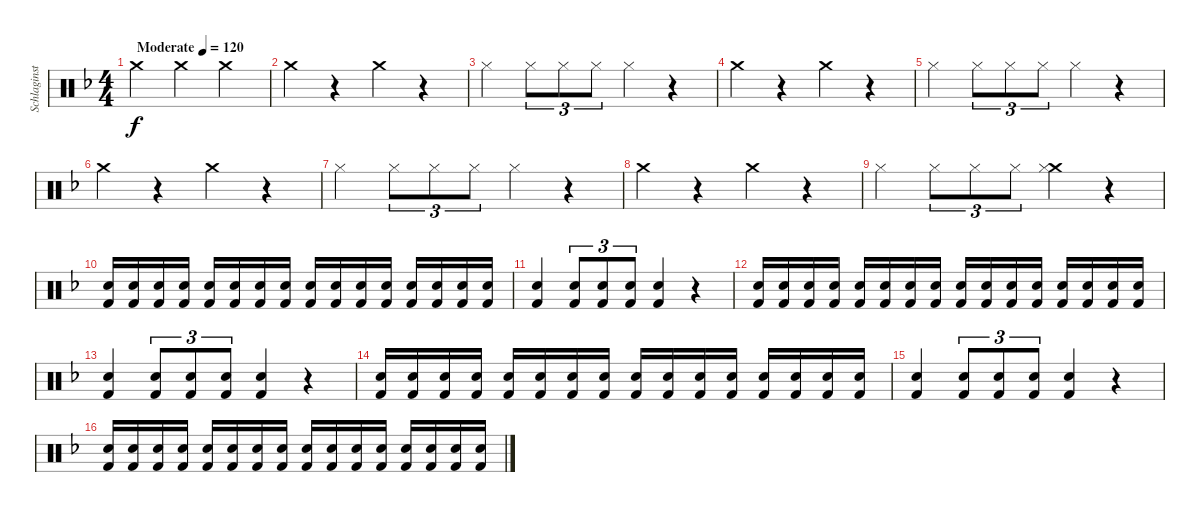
\track ("Schlaginstrumente - Auswahl" "Schlaginst") {instrument percussion}
\staff {score}
\articulation defaults
\ts (4 4)
\tempo (120 "Moderate")
\clef neutral
\ks f "Crash medium (hit)".4{dy f} "Crash medium (hit)".4 "Crash medium (hit)".4
|
"Crash medium (hit)".4 r.4 "Crash medium (hit)".4 r.4 |
"Hi-Hat (closed)".4 "Hi-Hat (closed)".8{tu (3 2)} "Hi-Hat (closed)".8{tu (3 2)} "Hi-Hat (closed)".8{tu (3 2)} "Hi-Hat (closed)".4 r.4 |
"Crash medium (hit)".4 r.4 "Crash medium (hit)".4 r.4 |
"Hi-Hat (closed)".4 "Hi-Hat (closed)".8{tu (3 2)} "Hi-Hat (closed)".8{tu (3 2)} "Hi-Hat (closed)".8{tu (3 2)} "Hi-Hat (closed)".4 r.4 |
"Crash medium (hit)".4 r.4 "Crash medium (hit)".4 r.4 |
"Hi-Hat (closed)".4 "Hi-Hat (closed)".8{tu (3 2)} "Hi-Hat (closed)".8{tu (3 2)} "Hi-Hat (closed)".8{tu (3 2)} "Hi-Hat (closed)".4 r.4 |
"Crash medium (hit)".4 r.4 "Crash medium (hit)".4 r.4 |
"Hi-Hat (closed)".4 "Hi-Hat (closed)".8{tu (3 2)} "Hi-Hat (closed)".8{tu (3 2)} "Hi-Hat (closed)".8{tu (3 2)} ("Crash medium (hit)" "Hi-Hat (closed)").4 r.4 |
("Electric Snare (hit)" "Kick (hit) 2").16 ("Electric Snare (hit)" "Kick (hit) 2").16 ("Electric Snare (hit)" "Kick (hit) 2").16 ("Electric Snare (hit)" "Kick (hit) 2").16 ("Electric Snare (hit)" "Kick (hit) 2").16 ("Electric Snare (hit)" "Kick (hit) 2").16 ("Electric Snare (hit)" "Kick (hit) 2").16 ("Electric Snare (hit)" "Kick (hit) 2").16 ("Electric Snare (hit)" "Kick (hit) 2").16 ("Electric Snare (hit)" "Kick (hit) 2").16 ("Electric Snare (hit)" "Kick (hit) 2").16 ("Electric Snare (hit)" "Kick (hit) 2").16 ("Electric Snare (hit)" "Kick (hit) 2").16 ("Electric Snare (hit)" "Kick (hit) 2").16 ("Electric Snare (hit)" "Kick (hit) 2").16 ("Electric Snare (hit)" "Kick (hit) 2").16 |
("Electric Snare (hit)" "Kick (hit) 2").4 ("Electric Snare (hit)" "Kick (hit) 2").8{tu (3 2)} ("Electric Snare (hit)" "Kick (hit) 2").8{tu (3 2)} ("Electric Snare (hit)" "Kick (hit) 2").8{tu (3 2)} ("Electric Snare (hit)" "Kick (hit) 2").4 r.4 |
("Electric Snare (hit)" "Kick (hit) 2").16 ("Electric Snare (hit)" "Kick (hit) 2").16 ("Electric Snare (hit)" "Kick (hit) 2").16 ("Electric Snare (hit)" "Kick (hit) 2").16 ("Electric Snare (hit)" "Kick (hit) 2").16 ("Electric Snare (hit)" "Kick (hit) 2").16 ("Electric Snare (hit)" "Kick (hit) 2").16 ("Electric Snare (hit)" "Kick (hit) 2").16 ("Electric Snare (hit)" "Kick (hit) 2").16 ("Electric Snare (hit)" "Kick (hit) 2").16 ("Electric Snare (hit)" "Kick (hit) 2").16 ("Electric Snare (hit)" "Kick (hit) 2").16 ("Electric Snare (hit)" "Kick (hit) 2").16 ("Electric Snare (hit)" "Kick (hit) 2").16 ("Electric Snare (hit)" "Kick (hit) 2").16 ("Electric Snare (hit)" "Kick (hit) 2").16 |
("Electric Snare (hit)" "Kick (hit) 2").4 ("Electric Snare (hit)" "Kick (hit) 2").8{tu (3 2)} ("Electric Snare (hit)" "Kick (hit) 2").8{tu (3 2)} ("Electric Snare (hit)" "Kick (hit) 2").8{tu (3 2)} ("Electric Snare (hit)" "Kick (hit) 2").4 r.4 |
("Electric Snare (hit)" "Kick (hit) 2").16 ("Electric Snare (hit)" "Kick (hit) 2").16 ("Electric Snare (hit)" "Kick (hit) 2").16 ("Electric Snare (hit)" "Kick (hit) 2").16 ("Electric Snare (hit)" "Kick (hit) 2").16 ("Electric Snare (hit)" "Kick (hit) 2").16 ("Electric Snare (hit)" "Kick (hit) 2").16 ("Electric Snare (hit)" "Kick (hit) 2").16 ("Electric Snare (hit)" "Kick (hit) 2").16 ("Electric Snare (hit)" "Kick (hit) 2").16 ("Electric Snare (hit)" "Kick (hit) 2").16 ("Electric Snare (hit)" "Kick (hit) 2").16 ("Electric Snare (hit)" "Kick (hit) 2").16 ("Electric Snare (hit)" "Kick (hit) 2").16 ("Electric Snare (hit)" "Kick (hit) 2").16 ("Electric Snare (hit)" "Kick (hit) 2").16 |
("Electric Snare (hit)" "Kick (hit) 2").4 ("Electric Snare (hit)" "Kick (hit) 2").8{tu (3 2)} ("Electric Snare (hit)" "Kick (hit) 2").8{tu (3 2)} ("Electric Snare (hit)" "Kick (hit) 2").8{tu (3 2)} ("Electric Snare (hit)" "Kick (hit) 2").4 r.4 |
("Electric Snare (hit)" "Kick (hit) 2").16 ("Electric Snare (hit)" "Kick (hit) 2").16 ("Electric Snare (hit)" "Kick (hit) 2").16 ("Electric Snare (hit)" "Kick (hit) 2").16 ("Electric Snare (hit)" "Kick (hit) 2").16 ("Electric Snare (hit)" "Kick (hit) 2").16 ("Electric Snare (hit)" "Kick (hit) 2").16 ("Electric Snare (hit)" "Kick (hit) 2").16 ("Electric Snare (hit)" "Kick (hit) 2").16 ("Electric Snare (hit)" "Kick (hit) 2").16 ("Electric Snare (hit)" "Kick (hit) 2").16 ("Electric Snare (hit)" "Kick (hit) 2").16 ("Electric Snare (hit)" "Kick (hit) 2").16 ("Electric Snare (hit)" "Kick (hit) 2").16 ("Electric Snare (hit)" "Kick (hit) 2").16 ("Electric Snare (hit)" "Kick (hit) 2").16
